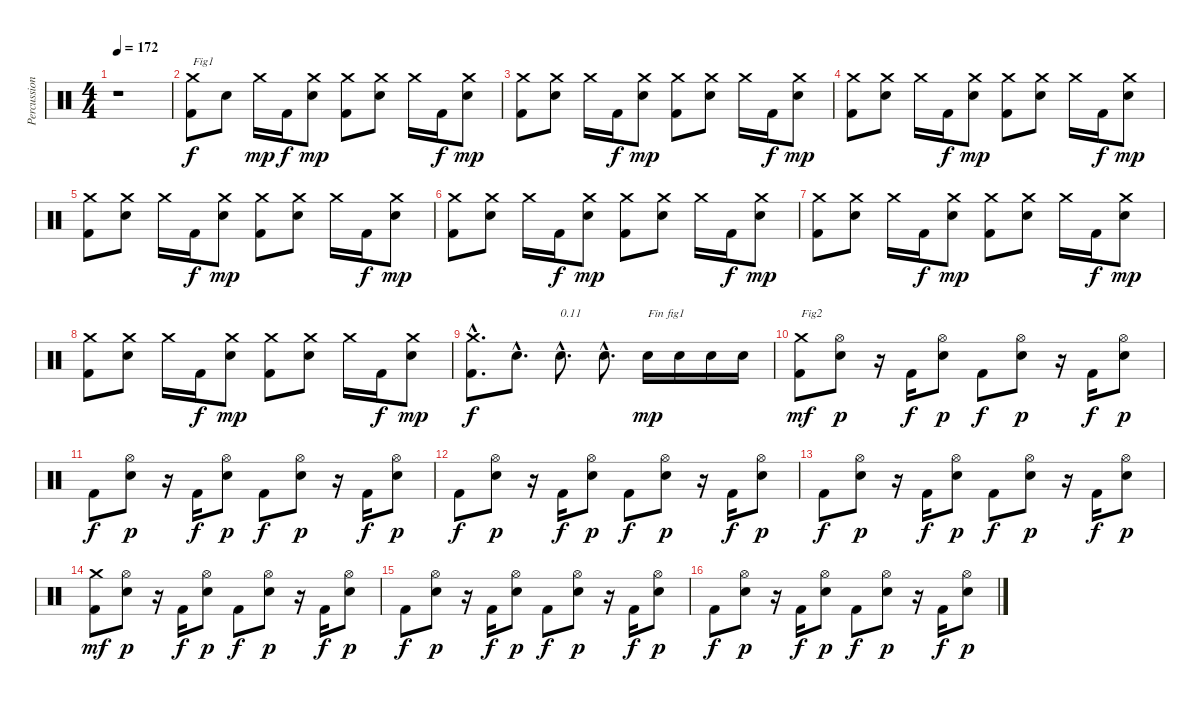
\track ("Percussions" "Percussion") {instrument percussion}
\staff {score}
\articulation defaults
\ts (4 4)
\tempo 172
\clef neutral
\ks c
r.1{dy f} |
("Kick (hit) 2" "Crash medium (hit)").8{txt "Fig1"} "Electric Snare (hit)".8 "Crash medium (hit)".16{dy mp} "Kick (hit) 2".16{dy f} ("Electric Snare (hit)" "Crash medium (hit)").8{dy mp} ("Kick (hit) 2" "Crash medium (hit)").8 ("Electric Snare (hit)" "Crash medium (hit)").8 "Crash medium (hit)".16 "Kick (hit) 2".16{dy f} ("Electric Snare (hit)" "Crash medium (hit)").8{dy mp} |
("Kick (hit) 2" "Crash medium (hit)").8 ("Electric Snare (hit)" "Crash medium (hit)").8 "Crash medium (hit)".16 "Kick (hit) 2".16{dy f} ("Electric Snare (hit)" "Crash medium (hit)").8{dy mp} ("Kick (hit) 2" "Crash medium (hit)").8 ("Electric Snare (hit)" "Crash medium (hit)").8 "Crash medium (hit)".16 "Kick (hit) 2".16{dy f} ("Electric Snare (hit)" "Crash medium (hit)").8{dy mp} |
("Kick (hit) 2" "Crash medium (hit)").8 ("Electric Snare (hit)" "Crash medium (hit)").8 "Crash medium (hit)".16 "Kick (hit) 2".16{dy f} ("Electric Snare (hit)" "Crash medium (hit)").8{dy mp} ("Kick (hit) 2" "Crash medium (hit)").8 ("Electric Snare (hit)" "Crash medium (hit)").8 "Crash medium (hit)".16 "Kick (hit) 2".16{dy f} ("Electric Snare (hit)" "Crash medium (hit)").8{dy mp} |
("Kick (hit) 2" "Crash medium (hit)").8 ("Electric Snare (hit)" "Crash medium (hit)").8 "Crash medium (hit)".16 "Kick (hit) 2".16{dy f} ("Electric Snare (hit)" "Crash medium (hit)").8{dy mp} ("Kick (hit) 2" "Crash medium (hit)").8 ("Electric Snare (hit)" "Crash medium (hit)").8 "Crash medium (hit)".16 "Kick (hit) 2".16{dy f} ("Electric Snare (hit)" "Crash medium (hit)").8{dy mp} |
("Kick (hit) 2" "Crash medium (hit)").8 ("Electric Snare (hit)" "Crash medium (hit)").8 "Crash medium (hit)".16 "Kick (hit) 2".16{dy f} ("Electric Snare (hit)" "Crash medium (hit)").8{dy mp} ("Kick (hit) 2" "Crash medium (hit)").8 ("Electric Snare (hit)" "Crash medium (hit)").8 "Crash medium (hit)".16 "Kick (hit) 2".16{dy f} ("Electric Snare (hit)" "Crash medium (hit)").8{dy mp} |
("Kick (hit) 2" "Crash medium (hit)").8 ("Electric Snare (hit)" "Crash medium (hit)").8 "Crash medium (hit)".16 "Kick (hit) 2".16{dy f} ("Electric Snare (hit)" "Crash medium (hit)").8{dy mp} ("Kick (hit) 2" "Crash medium (hit)").8 ("Electric Snare (hit)" "Crash medium (hit)").8 "Crash medium (hit)".16 "Kick (hit) 2".16{dy f} ("Electric Snare (hit)" "Crash medium (hit)").8{dy mp} |
("Kick (hit) 2" "Crash medium (hit)").8 ("Electric Snare (hit)" "Crash medium (hit)").8 "Crash medium (hit)".16 "Kick (hit) 2".16{dy f} ("Electric Snare (hit)" "Crash medium (hit)").8{dy mp} ("Kick (hit) 2" "Crash medium (hit)").8 ("Electric Snare (hit)" "Crash medium (hit)").8 "Crash medium (hit)".16 "Kick (hit) 2".16{dy f} ("Electric Snare (hit)" "Crash medium (hit)").8{dy mp} |
("Kick (hit) 2"{hac} "Crash medium (hit)"{hac}).8{d dy f} "Electric Snare (hit)"{hac}.8{d} "Electric Snare (hit)"{hac}.8{d txt "0.11"} "Electric Snare (hit)"{hac}.8{d} "Electric Snare (hit)".16{txt "Fin fig1" dy mp} "Electric Snare (hit)".16 "Electric Snare (hit)".16 "Electric Snare (hit)".16 |
("Kick (hit) 2" "Crash medium (hit)").8{txt "Fig2" dy mf} ("Electric Snare (hit)" "Hi-Hat (open)").8{dy p} r.16 "Kick (hit) 2".16{dy f} ("Electric Snare (hit)" "Hi-Hat (open)").8{dy p} "Kick (hit) 2".8{dy f} ("Electric Snare (hit)" "Hi-Hat (open)").8{dy p} r.16 "Kick (hit) 2".16{dy f} ("Electric Snare (hit)" "Hi-Hat (open)").8{dy p} |
"Kick (hit) 2".8{dy f} ("Electric Snare (hit)" "Hi-Hat (open)").8{dy p} r.16 "Kick (hit) 2".16{dy f} ("Electric Snare (hit)" "Hi-Hat (open)").8{dy p} "Kick (hit) 2".8{dy f} ("Electric Snare (hit)" "Hi-Hat (open)").8{dy p} r.16 "Kick (hit) 2".16{dy f} ("Electric Snare (hit)" "Hi-Hat (open)").8{dy p} |
"Kick (hit) 2".8{dy f} ("Electric Snare (hit)" "Hi-Hat (open)").8{dy p} r.16 "Kick (hit) 2".16{dy f} ("Electric Snare (hit)" "Hi-Hat (open)").8{dy p} "Kick (hit) 2".8{dy f} ("Electric Snare (hit)" "Hi-Hat (open)").8{dy p} r.16 "Kick (hit) 2".16{dy f} ("Electric Snare (hit)" "Hi-Hat (open)").8{dy p} |
"Kick (hit) 2".8{dy f} ("Electric Snare (hit)" "Hi-Hat (open)").8{dy p} r.16 "Kick (hit) 2".16{dy f} ("Electric Snare (hit)" "Hi-Hat (open)").8{dy p} "Kick (hit) 2".8{dy f} ("Electric Snare (hit)" "Hi-Hat (open)").8{dy p} r.16 "Kick (hit) 2".16{dy f} ("Electric Snare (hit)" "Hi-Hat (open)").8{dy p} |
("Kick (hit) 2" "Crash medium (hit)").8{dy mf} ("Electric Snare (hit)" "Hi-Hat (open)").8{dy p} r.16 "Kick (hit) 2".16{dy f} ("Electric Snare (hit)" "Hi-Hat (open)").8{dy p} "Kick (hit) 2".8{dy f} ("Electric Snare (hit)" "Hi-Hat (open)").8{dy p} r.16 "Kick (hit) 2".16{dy f} ("Electric Snare (hit)" "Hi-Hat (open)").8{dy p} |
"Kick (hit) 2".8{dy f} ("Electric Snare (hit)" "Hi-Hat (open)").8{dy p} r.16 "Kick (hit) 2".16{dy f} ("Electric Snare (hit)" "Hi-Hat (open)").8{dy p} "Kick (hit) 2".8{dy f} ("Electric Snare (hit)" "Hi-Hat (open)").8{dy p} r.16 "Kick (hit) 2".16{dy f} ("Electric Snare (hit)" "Hi-Hat (open)").8{dy p} |
"Kick (hit) 2".8{dy f} ("Electric Snare (hit)" "Hi-Hat (open)").8{dy p} r.16 "Kick (hit) 2".16{dy f} ("Electric Snare (hit)" "Hi-Hat (open)").8{dy p} "Kick (hit) 2".8{dy f} ("Electric Snare (hit)" "Hi-Hat (open)").8{dy p} r.16 "Kick (hit) 2".16{dy f} ("Electric Snare (hit)" "Hi-Hat (open)").8{dy p}
